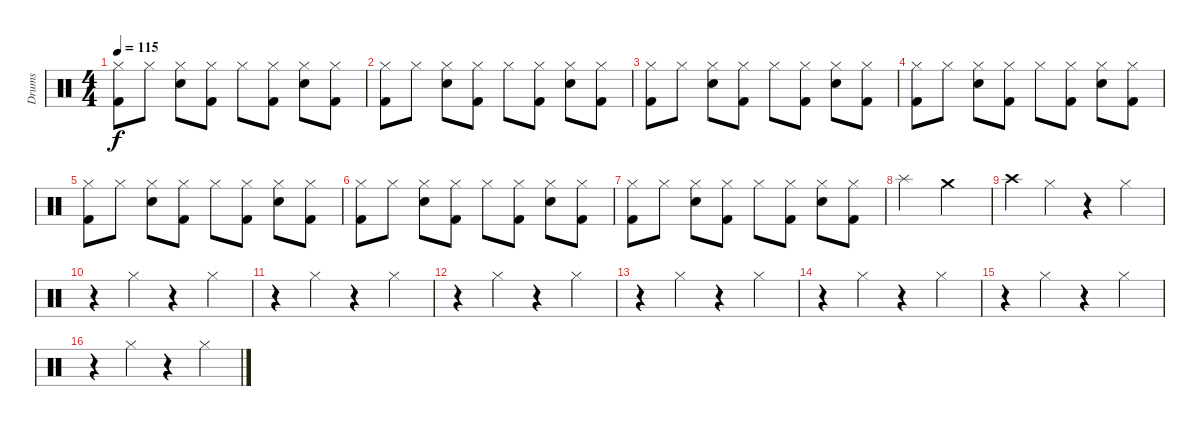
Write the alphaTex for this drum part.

\track ("Drums" "Drums") {instrument percussion}
\staff {score}
\articulation defaults
\ts (4 4)
\tempo 115
\clef neutral
\ks c
("Hi-Hat (closed)" "Kick (hit) 2").8{dy f} "Hi-Hat (closed)".8 ("Hi-Hat (closed)" "Snare (hit) 2").8 ("Hi-Hat (closed)" "Kick (hit) 2").8 "Hi-Hat (closed)".8 ("Hi-Hat (closed)" "Kick (hit) 2").8 ("Hi-Hat (closed)" "Snare (hit) 2").8 ("Hi-Hat (closed)" "Kick (hit) 2").8 |
("Hi-Hat (closed)" "Kick (hit) 2").8 "Hi-Hat (closed)".8 ("Hi-Hat (closed)" "Snare (hit) 2").8 ("Hi-Hat (closed)" "Kick (hit) 2").8 "Hi-Hat (closed)".8 ("Hi-Hat (closed)" "Kick (hit) 2").8 ("Hi-Hat (closed)" "Snare (hit) 2").8 ("Hi-Hat (closed)" "Kick (hit) 2").8 |
("Hi-Hat (closed)" "Kick (hit) 2").8 "Hi-Hat (closed)".8 ("Hi-Hat (closed)" "Snare (hit) 2").8 ("Hi-Hat (closed)" "Kick (hit) 2").8 "Hi-Hat (closed)".8 ("Hi-Hat (closed)" "Kick (hit) 2").8 ("Hi-Hat (closed)" "Snare (hit) 2").8 ("Hi-Hat (closed)" "Kick (hit) 2").8 |
("Hi-Hat (closed)" "Kick (hit) 2").8 "Hi-Hat (closed)".8 ("Hi-Hat (closed)" "Snare (hit) 2").8 ("Hi-Hat (closed)" "Kick (hit) 2").8 "Hi-Hat (closed)".8 ("Hi-Hat (closed)" "Kick (hit) 2").8 ("Hi-Hat (closed)" "Snare (hit) 2").8 ("Hi-Hat (closed)" "Kick (hit) 2").8 |
("Hi-Hat (closed)" "Kick (hit) 2").8 "Hi-Hat (closed)".8 ("Hi-Hat (closed)" "Snare (hit) 2").8 ("Hi-Hat (closed)" "Kick (hit) 2").8 "Hi-Hat (closed)".8 ("Hi-Hat (closed)" "Kick (hit) 2").8 ("Hi-Hat (closed)" "Snare (hit) 2").8 ("Hi-Hat (closed)" "Kick (hit) 2").8 |
("Hi-Hat (closed)" "Kick (hit) 2").8 "Hi-Hat (closed)".8 ("Hi-Hat (closed)" "Snare (hit) 2").8 ("Hi-Hat (closed)" "Kick (hit) 2").8 "Hi-Hat (closed)".8 ("Hi-Hat (closed)" "Kick (hit) 2").8 ("Hi-Hat (closed)" "Snare (hit) 2").8 ("Hi-Hat (closed)" "Kick (hit) 2").8 |
("Hi-Hat (closed)" "Kick (hit) 2").8 "Hi-Hat (closed)".8 ("Hi-Hat (closed)" "Snare (hit) 2").8 ("Hi-Hat (closed)" "Kick (hit) 2").8 "Hi-Hat (closed)".8 ("Hi-Hat (closed)" "Kick (hit) 2").8 ("Hi-Hat (closed)" "Snare (hit) 2").8 ("Hi-Hat (closed)" "Kick (hit) 2").8 |
"Splash (hit)".2 "Crash medium (hit)".2 |
"Crash high (hit)".4 "Hi-Hat (closed)".4 r.4 "Hi-Hat (closed)".4 |
r.4 "Hi-Hat (closed)".4 r.4 "Hi-Hat (closed)".4 |
r.4 "Hi-Hat (closed)".4 r.4 "Hi-Hat (closed)".4 |
r.4 "Hi-Hat (closed)".4 r.4 "Hi-Hat (closed)".4 |
r.4 "Hi-Hat (closed)".4 r.4 "Hi-Hat (closed)".4 |
r.4 "Hi-Hat (closed)".4 r.4 "Hi-Hat (closed)".4 |
r.4 "Hi-Hat (closed)".4 r.4 "Hi-Hat (closed)".4 |
r.4 "Hi-Hat (closed)".4 r.4 "Hi-Hat (closed)".4
